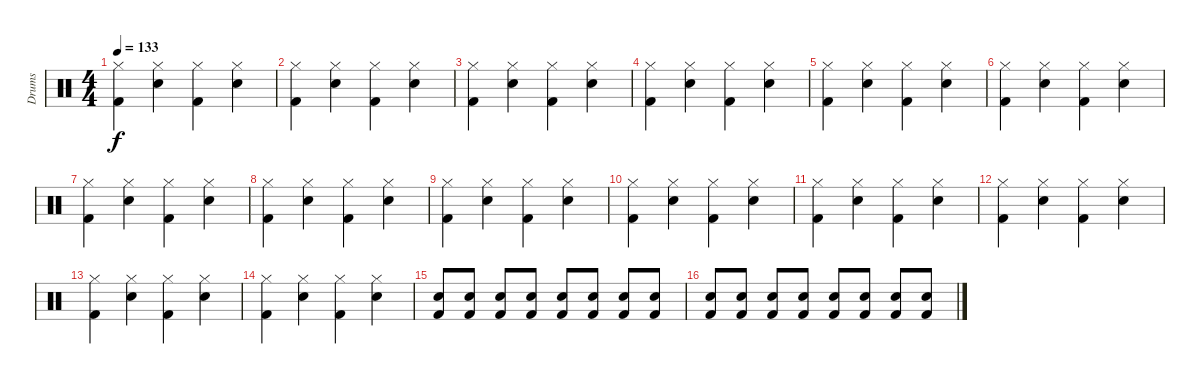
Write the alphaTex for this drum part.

\track ("Drums" "Drums") {instrument percussion}
\staff {score}
\articulation defaults
\ts (4 4)
\tempo 133
\clef neutral
\ks c
("Hi-Hat (closed)" "Kick (hit) 2").4{dy f} ("Hi-Hat (closed)" "Snare (hit) 2").4 ("Hi-Hat (closed)" "Kick (hit) 2").4 ("Hi-Hat (closed)" "Snare (hit) 2").4 |
("Hi-Hat (closed)" "Kick (hit) 2").4 ("Hi-Hat (closed)" "Snare (hit) 2").4 ("Hi-Hat (closed)" "Kick (hit) 2").4 ("Hi-Hat (closed)" "Snare (hit) 2").4 |
("Hi-Hat (closed)" "Kick (hit) 2").4 ("Hi-Hat (closed)" "Snare (hit) 2").4 ("Hi-Hat (closed)" "Kick (hit) 2").4 ("Hi-Hat (closed)" "Snare (hit) 2").4 |
("Hi-Hat (closed)" "Kick (hit) 2").4 ("Hi-Hat (closed)" "Snare (hit) 2").4 ("Hi-Hat (closed)" "Kick (hit) 2").4 ("Hi-Hat (closed)" "Snare (hit) 2").4 |
("Hi-Hat (closed)" "Kick (hit) 2").4 ("Hi-Hat (closed)" "Snare (hit) 2").4 ("Hi-Hat (closed)" "Kick (hit) 2").4 ("Hi-Hat (closed)" "Snare (hit) 2").4 |
("Hi-Hat (closed)" "Kick (hit) 2").4 ("Hi-Hat (closed)" "Snare (hit) 2").4 ("Hi-Hat (closed)" "Kick (hit) 2").4 ("Hi-Hat (closed)" "Snare (hit) 2").4 |
("Hi-Hat (closed)" "Kick (hit) 2").4 ("Hi-Hat (closed)" "Snare (hit) 2").4 ("Hi-Hat (closed)" "Kick (hit) 2").4 ("Hi-Hat (closed)" "Snare (hit) 2").4 |
("Hi-Hat (closed)" "Kick (hit) 2").4 ("Hi-Hat (closed)" "Snare (hit) 2").4 ("Hi-Hat (closed)" "Kick (hit) 2").4 ("Hi-Hat (closed)" "Snare (hit) 2").4 |
("Hi-Hat (closed)" "Kick (hit) 2").4 ("Hi-Hat (closed)" "Snare (hit) 2").4 ("Hi-Hat (closed)" "Kick (hit) 2").4 ("Hi-Hat (closed)" "Snare (hit) 2").4 |
("Hi-Hat (closed)" "Kick (hit) 2").4 ("Hi-Hat (closed)" "Snare (hit) 2").4 ("Hi-Hat (closed)" "Kick (hit) 2").4 ("Hi-Hat (closed)" "Snare (hit) 2").4 |
("Hi-Hat (closed)" "Kick (hit) 2").4 ("Hi-Hat (closed)" "Snare (hit) 2").4 ("Hi-Hat (closed)" "Kick (hit) 2").4 ("Hi-Hat (closed)" "Snare (hit) 2").4 |
("Hi-Hat (closed)" "Kick (hit) 2").4 ("Hi-Hat (closed)" "Snare (hit) 2").4 ("Hi-Hat (closed)" "Kick (hit) 2").4 ("Hi-Hat (closed)" "Snare (hit) 2").4 |
("Hi-Hat (closed)" "Kick (hit) 2").4 ("Hi-Hat (closed)" "Snare (hit) 2").4 ("Hi-Hat (closed)" "Kick (hit) 2").4 ("Hi-Hat (closed)" "Snare (hit) 2").4 |
("Hi-Hat (closed)" "Kick (hit) 2").4 ("Hi-Hat (closed)" "Snare (hit) 2").4 ("Hi-Hat (closed)" "Kick (hit) 2").4 ("Hi-Hat (closed)" "Snare (hit) 2").4 |
("Snare (hit) 2" "Kick (hit) 2").8 ("Snare (hit) 2" "Kick (hit) 2").8 ("Snare (hit) 2" "Kick (hit) 2").8 ("Snare (hit) 2" "Kick (hit) 2").8 ("Snare (hit) 2" "Kick (hit) 2").8 ("Snare (hit) 2" "Kick (hit) 2").8 ("Snare (hit) 2" "Kick (hit) 2").8 ("Snare (hit) 2" "Kick (hit) 2").8 |
("Snare (hit) 2" "Kick (hit) 2").8 ("Snare (hit) 2" "Kick (hit) 2").8 ("Snare (hit) 2" "Kick (hit) 2").8 ("Snare (hit) 2" "Kick (hit) 2").8 ("Snare (hit) 2" "Kick (hit) 2").8 ("Snare (hit) 2" "Kick (hit) 2").8 ("Snare (hit) 2" "Kick (hit) 2").8 ("Snare (hit) 2" "Kick (hit) 2").8
